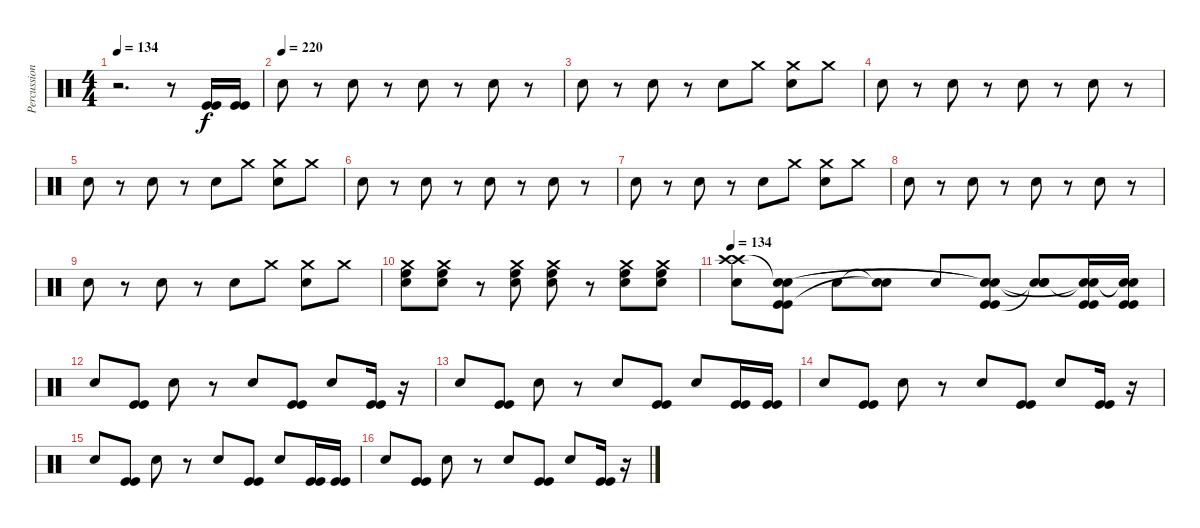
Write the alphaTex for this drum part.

\track ("Percussion (Rico)" "Percussion") {instrument percussion}
\staff {score}
\articulation defaults
\ts (4 4)
\tempo 134
\clef neutral
\ks c
r.2{d dy f} r.8 ("Kick (hit)" "Kick (hit)").16 ("Kick (hit)" "Kick (hit)").16 |
\tempo (220)
"Electric Snare (hit)".8 r.8 "Electric Snare (hit)".8 r.8 "Electric Snare (hit)".8 r.8 "Electric Snare (hit)".8 r.8 |
"Electric Snare (hit)".8 r.8 "Electric Snare (hit)".8 r.8 "Electric Snare (hit)".8 "Crash medium (hit)".8 ("Crash medium (hit)" "Electric Snare (hit)").8 "Crash medium (hit)".8 |
"Electric Snare (hit)".8 r.8 "Electric Snare (hit)".8 r.8 "Electric Snare (hit)".8 r.8 "Electric Snare (hit)".8 r.8 |
"Electric Snare (hit)".8 r.8 "Electric Snare (hit)".8 r.8 "Electric Snare (hit)".8 "Crash medium (hit)".8 ("Crash medium (hit)" "Electric Snare (hit)").8 "Crash medium (hit)".8 |
"Electric Snare (hit)".8 r.8 "Electric Snare (hit)".8 r.8 "Electric Snare (hit)".8 r.8 "Electric Snare (hit)".8 r.8 |
"Electric Snare (hit)".8 r.8 "Electric Snare (hit)".8 r.8 "Electric Snare (hit)".8 "Crash medium (hit)".8 ("Crash medium (hit)" "Electric Snare (hit)").8 "Crash medium (hit)".8 |
"Electric Snare (hit)".8 r.8 "Electric Snare (hit)".8 r.8 "Electric Snare (hit)".8 r.8 "Electric Snare (hit)".8 r.8 |
"Electric Snare (hit)".8 r.8 "Electric Snare (hit)".8 r.8 "Electric Snare (hit)".8 "Crash medium (hit)".8 ("Crash medium (hit)" "Electric Snare (hit)").8 "Crash medium (hit)".8 |
("Crash medium (hit)" "High Floor Tom (hit)" "Electric Snare (hit)").8 ("Crash medium (hit)" "High Floor Tom (hit)" "Electric Snare (hit)").8 r.8 ("Electric Snare (hit)" "High Floor Tom (hit)" "Crash medium (hit)").8 ("Electric Snare (hit)" "High Floor Tom (hit)" "Crash medium (hit)").8 r.8 ("Electric Snare (hit)" "Crash medium (hit)" "High Floor Tom (hit)").8 ("Electric Snare (hit)" "Crash medium (hit)" "High Floor Tom (hit)").8 |
\tempo 134
("Electric Snare (hit)" "Crash high (hit)" "Crash high (hit)").8 ("Kick (hit)" "Kick (hit)" "Snare (hit)"{t} "Snare (hit)").8 "Electric Snare (hit)".8 ("Snare (hit)"{t} "Snare (hit)"{t}).8 "Electric Snare (hit)".8 ("Kick (hit)" "Kick (hit)" "Snare (hit)"{t} "Snare (hit)"{t}).8 ("Electric Snare (hit)" "Snare (hit)"{t} "Snare (hit)"{t}).8 ("Kick (hit)" "Kick (hit)" "Snare (hit)"{t} "Snare (hit)"{t}).16 ("Kick (hit)" "Kick (hit)" "Snare (hit)"{t} "Snare (hit)"{t}).16 |
"Electric Snare (hit)".8 ("Kick (hit)" "Kick (hit)").8 "Electric Snare (hit)".8 r.8 "Electric Snare (hit)".8 ("Kick (hit)" "Kick (hit)").8 "Electric Snare (hit)".8 ("Kick (hit)" "Kick (hit)").16 r.16 |
"Electric Snare (hit)".8 ("Kick (hit)" "Kick (hit)").8 "Electric Snare (hit)".8 r.8 "Electric Snare (hit)".8 ("Kick (hit)" "Kick (hit)").8 "Electric Snare (hit)".8 ("Kick (hit)" "Kick (hit)").16 ("Kick (hit)" "Kick (hit)").16 |
"Electric Snare (hit)".8 ("Kick (hit)" "Kick (hit)").8 "Electric Snare (hit)".8 r.8 "Electric Snare (hit)".8 ("Kick (hit)" "Kick (hit)").8 "Electric Snare (hit)".8 ("Kick (hit)" "Kick (hit)").16 r.16 |
"Electric Snare (hit)".8 ("Kick (hit)" "Kick (hit)").8 "Electric Snare (hit)".8 r.8 "Electric Snare (hit)".8 ("Kick (hit)" "Kick (hit)").8 "Electric Snare (hit)".8 ("Kick (hit)" "Kick (hit)").16 ("Kick (hit)" "Kick (hit)").16 |
"Electric Snare (hit)".8 ("Kick (hit)" "Kick (hit)").8 "Electric Snare (hit)".8 r.8 "Electric Snare (hit)".8 ("Kick (hit)" "Kick (hit)").8 "Electric Snare (hit)".8 ("Kick (hit)" "Kick (hit)").16 r.16
